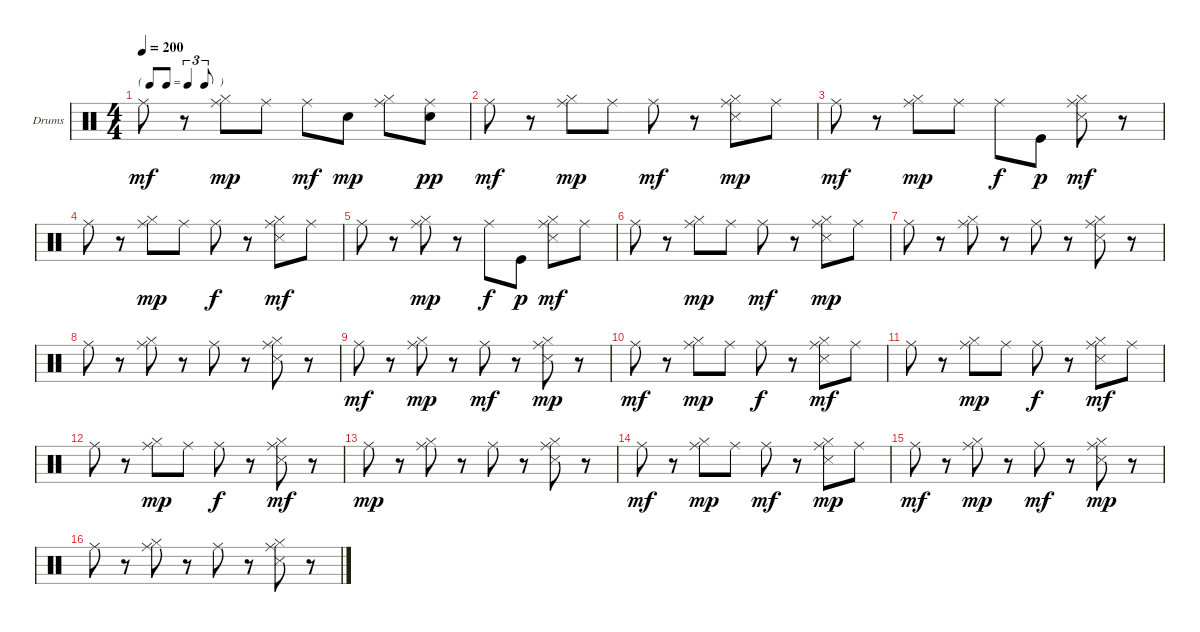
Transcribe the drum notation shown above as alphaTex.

\bracketExtendMode groupsimilarinstruments
\firstSystemTrackNameOrientation horizontal
\otherSystemsTrackNameOrientation horizontal
\track ("Drumkit" "Drums") {instrument percussion}
\staff {score}
\articulation defaults
\ts (4 4)
\tf triplet8th
\tempo 200
\clef neutral
\ks c "Ride (middle)".8{dy mf}
r.8 ("Hi-Hat (closed)" "Ride (middle)").8{dy mp} "Ride (middle)".8 "Ride (middle)".8{dy mf} "Snare (hit) 2".8{dy mp} ("Hi-Hat (closed)" "Ride (middle)").8 ("Snare (hit) 2" "Ride (middle)").8{dy pp} |
"Ride (middle)".8{dy mf} r.8 ("Hi-Hat (closed)" "Ride (middle)").8{dy mp} "Ride (middle)".8 "Ride (middle)".8{dy mf} r.8 ("Hi-Hat (closed)" "Snare (side stick) 3" "Ride (middle)").8{dy mp} "Ride (middle)".8 |
"Ride (middle)".8{dy mf} r.8 ("Hi-Hat (closed)" "Ride (middle)").8{dy mp} "Ride (middle)".8 "Ride (middle)".8{dy f} "Kick (hit)".8{dy p} ("Hi-Hat (closed)" "Snare (side stick) 3" "Ride (middle)").8{dy mf} r.8 |
"Ride (middle)".8 r.8 ("Hi-Hat (closed)" "Ride (middle)").8{dy mp} "Ride (middle)".8 "Ride (middle)".8{dy f} r.8 ("Hi-Hat (closed)" "Snare (side stick) 3" "Ride (middle)").8{dy mf} "Ride (middle)".8 |
"Ride (middle)".8 r.8 ("Hi-Hat (closed)" "Ride (middle)").8{dy mp} r.8 "Ride (middle)".8{dy f} "Kick (hit)".8{dy p} ("Hi-Hat (closed)" "Snare (side stick) 3" "Ride (middle)").8{dy mf} "Ride (middle)".8 |
"Ride (middle)".8 r.8 ("Hi-Hat (closed)" "Ride (middle)").8{dy mp} "Ride (middle)".8 "Ride (middle)".8{dy mf} r.8 ("Hi-Hat (closed)" "Snare (side stick) 3" "Ride (middle)").8{dy mp} "Ride (middle)".8 |
"Ride (middle)".8 r.8 ("Hi-Hat (closed)" "Ride (middle)").8 r.8 "Ride (middle)".8 r.8 ("Hi-Hat (closed)" "Snare (side stick) 3" "Ride (middle)").8 r.8 |
"Ride (middle)".8 r.8 ("Hi-Hat (closed)" "Ride (middle)").8 r.8 "Ride (middle)".8 r.8 ("Hi-Hat (closed)" "Snare (side stick) 3" "Ride (middle)").8 r.8 |
"Ride (middle)".8{dy mf} r.8 ("Hi-Hat (closed)" "Ride (middle)").8{dy mp} r.8 "Ride (middle)".8{dy mf} r.8 ("Hi-Hat (closed)" "Snare (side stick) 3" "Ride (middle)").8{dy mp} r.8 |
"Ride (middle)".8{dy mf} r.8 ("Hi-Hat (closed)" "Ride (middle)").8{dy mp} "Ride (middle)".8 "Ride (middle)".8{dy f} r.8 ("Hi-Hat (closed)" "Snare (side stick) 3" "Ride (middle)").8{dy mf} "Ride (middle)".8 |
"Ride (middle)".8 r.8 ("Hi-Hat (closed)" "Ride (middle)").8{dy mp} "Ride (middle)".8 "Ride (middle)".8{dy f} r.8 ("Hi-Hat (closed)" "Snare (side stick) 3" "Ride (middle)").8{dy mf} "Ride (middle)".8 |
"Ride (middle)".8 r.8 ("Hi-Hat (closed)" "Ride (middle)").8{dy mp} "Ride (middle)".8 "Ride (middle)".8{dy f} r.8 ("Hi-Hat (closed)" "Snare (side stick) 3" "Ride (middle)").8{dy mf} r.8 |
"Ride (middle)".8{dy mp} r.8 ("Hi-Hat (closed)" "Ride (middle)").8 r.8 "Ride (middle)".8 r.8 ("Hi-Hat (closed)" "Snare (side stick) 3" "Ride (middle)").8 r.8 |
"Ride (middle)".8{dy mf} r.8 ("Hi-Hat (closed)" "Ride (middle)").8{dy mp} "Ride (middle)".8 "Ride (middle)".8{dy mf} r.8 ("Hi-Hat (closed)" "Snare (side stick) 3" "Ride (middle)").8{dy mp} "Ride (middle)".8 |
"Ride (middle)".8{dy mf} r.8 ("Hi-Hat (closed)" "Ride (middle)").8{dy mp} r.8 "Ride (middle)".8{dy mf} r.8 ("Hi-Hat (closed)" "Snare (side stick) 3" "Ride (middle)").8{dy mp} r.8 |
"Ride (middle)".8 r.8 ("Hi-Hat (closed)" "Ride (middle)").8 r.8 "Ride (middle)".8 r.8 ("Hi-Hat (closed)" "Snare (side stick) 3" "Ride (middle)").8 r.8
